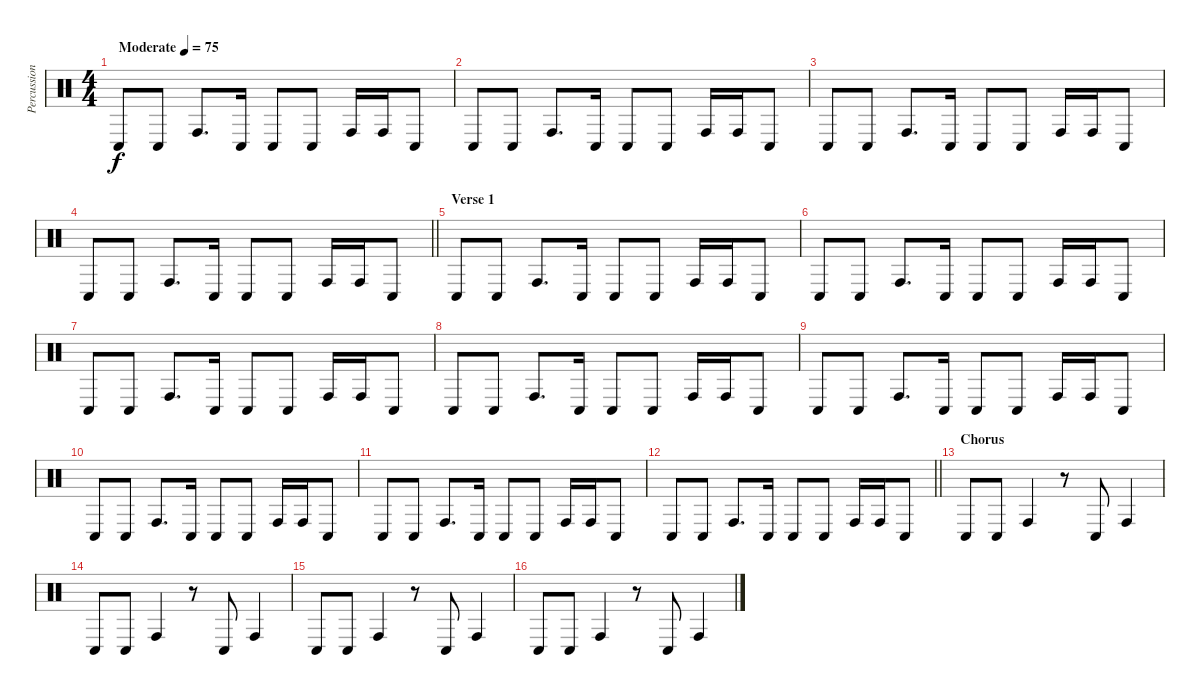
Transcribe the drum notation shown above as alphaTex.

\track ("Percussion (bongo's) +" "Percussion") {instrument percussion}
\staff {score}
\articulation defaults
\ts (4 4)
\tempo (75 "Moderate")
\clef neutral
\ks c "Conga low (hit)".8{dy f} "Conga low (hit)".8 "Conga high (hit)".8{d} "Conga low (hit)".16 "Conga low (hit)".8 "Conga low (hit)".8 "Conga high (hit)".16 "Conga high (hit)".16 "Conga low (hit)".8
|
"Conga low (hit)".8 "Conga low (hit)".8 "Conga high (hit)".8{d} "Conga low (hit)".16 "Conga low (hit)".8 "Conga low (hit)".8 "Conga high (hit)".16 "Conga high (hit)".16 "Conga low (hit)".8 |
"Conga low (hit)".8 "Conga low (hit)".8 "Conga high (hit)".8{d} "Conga low (hit)".16 "Conga low (hit)".8 "Conga low (hit)".8 "Conga high (hit)".16 "Conga high (hit)".16 "Conga low (hit)".8 |
\barLineRight lightlight "Conga low (hit)".8 "Conga low (hit)".8 "Conga high (hit)".8{d} "Conga low (hit)".16 "Conga low (hit)".8 "Conga low (hit)".8 "Conga high (hit)".16 "Conga high (hit)".16 "Conga low (hit)".8
|
\section ("" "Verse 1")
"Conga low (hit)".8 "Conga low (hit)".8 "Conga high (hit)".8{d} "Conga low (hit)".16 "Conga low (hit)".8 "Conga low (hit)".8 "Conga high (hit)".16 "Conga high (hit)".16 "Conga low (hit)".8 |
"Conga low (hit)".8 "Conga low (hit)".8 "Conga high (hit)".8{d} "Conga low (hit)".16 "Conga low (hit)".8 "Conga low (hit)".8 "Conga high (hit)".16 "Conga high (hit)".16 "Conga low (hit)".8 |
"Conga low (hit)".8 "Conga low (hit)".8 "Conga high (hit)".8{d} "Conga low (hit)".16 "Conga low (hit)".8 "Conga low (hit)".8 "Conga high (hit)".16 "Conga high (hit)".16 "Conga low (hit)".8 |
"Conga low (hit)".8 "Conga low (hit)".8 "Conga high (hit)".8{d} "Conga low (hit)".16 "Conga low (hit)".8 "Conga low (hit)".8 "Conga high (hit)".16 "Conga high (hit)".16 "Conga low (hit)".8 |
"Conga low (hit)".8 "Conga low (hit)".8 "Conga high (hit)".8{d} "Conga low (hit)".16 "Conga low (hit)".8 "Conga low (hit)".8 "Conga high (hit)".16 "Conga high (hit)".16 "Conga low (hit)".8 |
"Conga low (hit)".8 "Conga low (hit)".8 "Conga high (hit)".8{d} "Conga low (hit)".16 "Conga low (hit)".8 "Conga low (hit)".8 "Conga high (hit)".16 "Conga high (hit)".16 "Conga low (hit)".8 |
"Conga low (hit)".8 "Conga low (hit)".8 "Conga high (hit)".8{d} "Conga low (hit)".16 "Conga low (hit)".8 "Conga low (hit)".8 "Conga high (hit)".16 "Conga high (hit)".16 "Conga low (hit)".8 |
\barLineRight lightlight "Conga low (hit)".8 "Conga low (hit)".8 "Conga high (hit)".8{d} "Conga low (hit)".16 "Conga low (hit)".8 "Conga low (hit)".8 "Conga high (hit)".16 "Conga high (hit)".16 "Conga low (hit)".8
|
\section ("" "Chorus")
"Conga low (hit)".8 "Conga low (hit)".8 "Conga high (hit)".4 r.8 "Conga low (hit)".8 "Conga high (hit)".4 |
"Conga low (hit)".8 "Conga low (hit)".8 "Conga high (hit)".4 r.8 "Conga low (hit)".8 "Conga high (hit)".4 |
"Conga low (hit)".8 "Conga low (hit)".8 "Conga high (hit)".4 r.8 "Conga low (hit)".8 "Conga high (hit)".4 |
"Conga low (hit)".8 "Conga low (hit)".8 "Conga high (hit)".4 r.8 "Conga low (hit)".8 "Conga high (hit)".4
